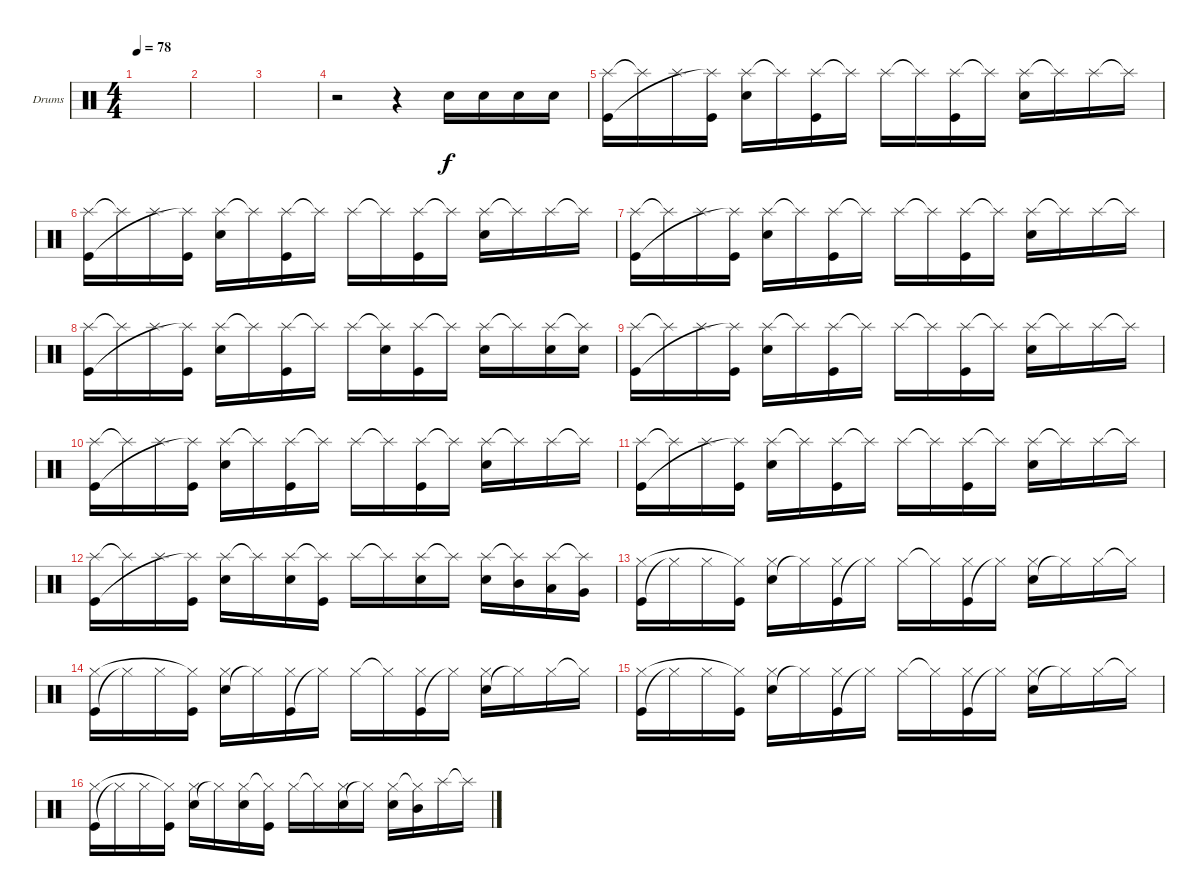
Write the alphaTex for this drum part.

\bracketExtendMode groupsimilarinstruments
\firstSystemTrackNameOrientation horizontal
\otherSystemsTrackNameOrientation horizontal
\track ("Drumkit" "Drums") {instrument percussion}
\staff {score}
\articulation defaults
\ts (4 4)
\tempo 78
\clef neutral
\ks c
|
|
|
r.2 r.4 "Snare (hit) 2".16 "Snare (hit) 2".16 "Snare (hit) 2".16 "Snare (hit) 2".16 |
("Splash (hit)" "Kick (hit)").16 "Splash (hit)"{t}.16 "Splash (hit)".16 ("Kick (hit)" "Splash (hit)"{t}).16 ("Splash (hit)" "Snare (hit) 2").16 "Splash (hit)"{t}.16 ("Splash (hit)" "Kick (hit)").16 "Splash (hit)"{t}.16 "Splash (hit)".16 "Splash (hit)"{t}.16 ("Splash (hit)" "Kick (hit)").16 "Splash (hit)"{t}.16 ("Splash (hit)" "Snare (hit) 2").16 "Splash (hit)"{t}.16 "Splash (hit)".16 "Splash (hit)"{t}.16 |
("Splash (hit)" "Kick (hit)").16 "Splash (hit)"{t}.16 "Splash (hit)".16 ("Kick (hit)" "Splash (hit)"{t}).16 ("Splash (hit)" "Snare (hit) 2").16 "Splash (hit)"{t}.16 ("Splash (hit)" "Kick (hit)").16 "Splash (hit)"{t}.16 "Splash (hit)".16 "Splash (hit)"{t}.16 ("Splash (hit)" "Kick (hit)").16 "Splash (hit)"{t}.16 ("Splash (hit)" "Snare (hit) 2").16 "Splash (hit)"{t}.16 "Splash (hit)".16 "Splash (hit)"{t}.16 |
("Splash (hit)" "Kick (hit)").16 "Splash (hit)"{t}.16 "Splash (hit)".16 ("Kick (hit)" "Splash (hit)"{t}).16 ("Splash (hit)" "Snare (hit) 2").16 "Splash (hit)"{t}.16 ("Splash (hit)" "Kick (hit)").16 "Splash (hit)"{t}.16 "Splash (hit)".16 "Splash (hit)"{t}.16 ("Splash (hit)" "Kick (hit)").16 "Splash (hit)"{t}.16 ("Splash (hit)" "Snare (hit) 2").16 "Splash (hit)"{t}.16 "Splash (hit)".16 "Splash (hit)"{t}.16 |
("Splash (hit)" "Kick (hit)").16 "Splash (hit)"{t}.16 "Splash (hit)".16 ("Kick (hit)" "Splash (hit)"{t}).16 ("Splash (hit)" "Snare (hit) 2").16 "Splash (hit)"{t}.16 ("Splash (hit)" "Kick (hit)").16 "Splash (hit)"{t}.16 "Splash (hit)".16 ("Splash (hit)"{t} "Snare (hit) 2").16 ("Splash (hit)" "Kick (hit)").16 "Splash (hit)"{t}.16 ("Splash (hit)" "Snare (hit) 2").16 "Splash (hit)"{t}.16 ("Splash (hit)" "Snare (hit) 2").16 ("Splash (hit)"{t} "Snare (hit) 2").16 |
("Splash (hit)" "Kick (hit)").16 "Splash (hit)"{t}.16 "Splash (hit)".16 ("Kick (hit)" "Splash (hit)"{t}).16 ("Splash (hit)" "Snare (hit) 2").16 "Splash (hit)"{t}.16 ("Splash (hit)" "Kick (hit)").16 "Splash (hit)"{t}.16 "Splash (hit)".16 "Splash (hit)"{t}.16 ("Splash (hit)" "Kick (hit)").16 "Splash (hit)"{t}.16 ("Splash (hit)" "Snare (hit) 2").16 "Splash (hit)"{t}.16 "Splash (hit)".16 "Splash (hit)"{t}.16 |
("Splash (hit)" "Kick (hit)").16 "Splash (hit)"{t}.16 "Splash (hit)".16 ("Kick (hit)" "Splash (hit)"{t}).16 ("Splash (hit)" "Snare (hit) 2").16 "Splash (hit)"{t}.16 ("Splash (hit)" "Kick (hit)").16 "Splash (hit)"{t}.16 "Splash (hit)".16 "Splash (hit)"{t}.16 ("Splash (hit)" "Kick (hit)").16 "Splash (hit)"{t}.16 ("Splash (hit)" "Snare (hit) 2").16 "Splash (hit)"{t}.16 "Splash (hit)".16 "Splash (hit)"{t}.16 |
("Splash (hit)" "Kick (hit)").16 "Splash (hit)"{t}.16 "Splash (hit)".16 ("Kick (hit)" "Splash (hit)"{t}).16 ("Splash (hit)" "Snare (hit) 2").16 "Splash (hit)"{t}.16 ("Splash (hit)" "Kick (hit)").16 "Splash (hit)"{t}.16 "Splash (hit)".16 "Splash (hit)"{t}.16 ("Splash (hit)" "Kick (hit)").16 "Splash (hit)"{t}.16 ("Splash (hit)" "Snare (hit) 2").16 "Splash (hit)"{t}.16 "Splash (hit)".16 "Splash (hit)"{t}.16 |
("Splash (hit)" "Kick (hit)").16 "Splash (hit)"{t}.16 "Splash (hit)".16 ("Kick (hit)" "Splash (hit)"{t}).16 ("Splash (hit)" "Snare (hit) 2").16 "Splash (hit)"{t}.16 ("Splash (hit)" "Snare (hit) 2").16 ("Splash (hit)"{t} "Kick (hit)").16 "Splash (hit)".16 "Splash (hit)"{t}.16 ("Splash (hit)" "Snare (hit) 2").16 "Splash (hit)"{t}.16 ("Splash (hit)" "Snare (hit) 2").16 ("Splash (hit)"{t} "Mid Tom (hit)").16 ("Splash (hit)" "Low Tom (hit)").16 ("Splash (hit)"{t} "Very Low Tom (hit)").16 |
("Kick (hit)" "Hi-Hat (closed)").16 "Hi-Hat (closed)"{t}.16 "Hi-Hat (closed)".16 ("Kick (hit)" "Hi-Hat (closed)"{t}).16 ("Snare (hit) 2" "Hi-Hat (closed)").16 "Hi-Hat (closed)"{t}.16 ("Kick (hit)" "Hi-Hat (closed)").16 "Hi-Hat (closed)"{t}.16 "Hi-Hat (closed)".16 "Hi-Hat (closed)"{t}.16 ("Kick (hit)" "Hi-Hat (closed)").16 "Hi-Hat (closed)"{t}.16 ("Snare (hit) 2" "Hi-Hat (closed)").16 "Hi-Hat (closed)"{t}.16 "Hi-Hat (closed)".16 "Hi-Hat (closed)"{t}.16 |
("Kick (hit)" "Hi-Hat (closed)").16 "Hi-Hat (closed)"{t}.16 "Hi-Hat (closed)".16 ("Kick (hit)" "Hi-Hat (closed)"{t}).16 ("Snare (hit) 2" "Hi-Hat (closed)").16 "Hi-Hat (closed)"{t}.16 ("Kick (hit)" "Hi-Hat (closed)").16 "Hi-Hat (closed)"{t}.16 "Hi-Hat (closed)".16 "Hi-Hat (closed)"{t}.16 ("Kick (hit)" "Hi-Hat (closed)").16 "Hi-Hat (closed)"{t}.16 ("Snare (hit) 2" "Hi-Hat (closed)").16 "Hi-Hat (closed)"{t}.16 "Hi-Hat (closed)".16 "Hi-Hat (closed)"{t}.16 |
("Kick (hit)" "Hi-Hat (closed)").16 "Hi-Hat (closed)"{t}.16 "Hi-Hat (closed)".16 ("Kick (hit)" "Hi-Hat (closed)"{t}).16 ("Snare (hit) 2" "Hi-Hat (closed)").16 "Hi-Hat (closed)"{t}.16 ("Kick (hit)" "Hi-Hat (closed)").16 "Hi-Hat (closed)"{t}.16 "Hi-Hat (closed)".16 "Hi-Hat (closed)"{t}.16 ("Kick (hit)" "Hi-Hat (closed)").16 "Hi-Hat (closed)"{t}.16 ("Snare (hit) 2" "Hi-Hat (closed)").16 "Hi-Hat (closed)"{t}.16 "Hi-Hat (closed)".16 "Hi-Hat (closed)"{t}.16 |
("Kick (hit)" "Hi-Hat (closed)").16 "Hi-Hat (closed)"{t}.16 "Hi-Hat (closed)".16 ("Kick (hit)" "Hi-Hat (closed)"{t}).16 ("Snare (hit) 2" "Hi-Hat (closed)").16 "Hi-Hat (closed)"{t}.16 ("Snare (hit) 2" "Hi-Hat (closed)").16 ("Kick (hit)" "Hi-Hat (closed)"{t}).16 "Hi-Hat (closed)".16 "Hi-Hat (closed)"{t}.16 ("Snare (hit) 2" "Hi-Hat (closed)").16 "Hi-Hat (closed)"{t}.16 ("Snare (hit) 2" "Hi-Hat (closed)").16 ("Mid Tom (hit)" "Hi-Hat (closed)"{t}).16 "Splash (hit)".16 "Splash (hit)"{t}.16
